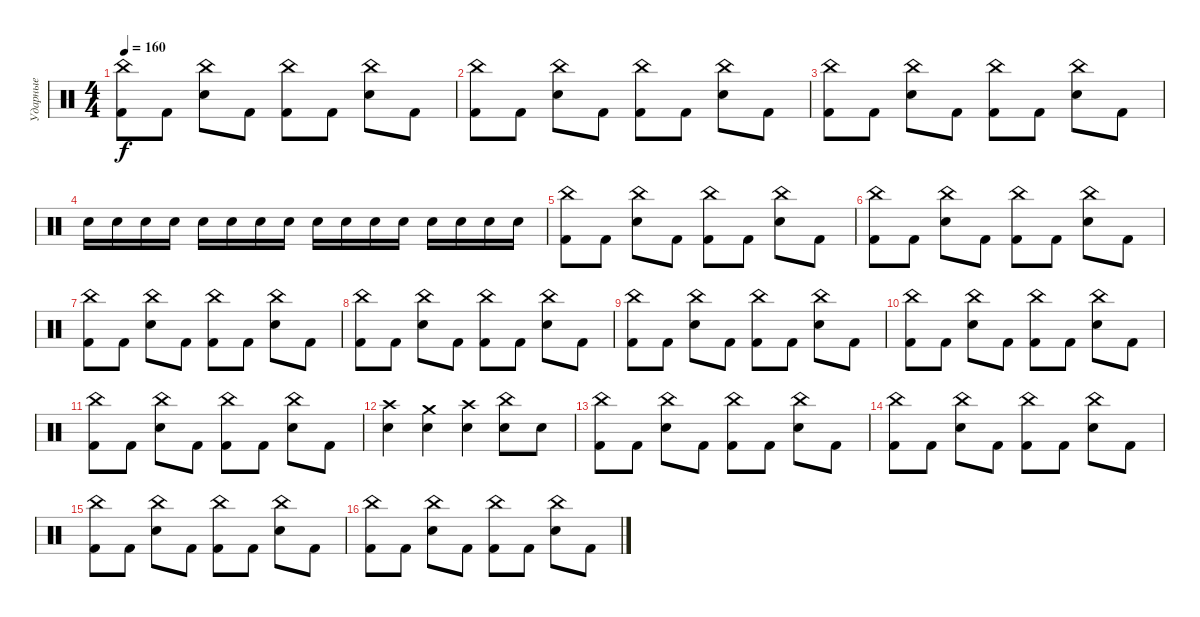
\track ("Ударные" "Ударные") {instrument percussion}
\staff {score}
\articulation defaults
\ts (4 4)
\tempo 160
\clef neutral
\ks c
("Kick (hit) 2" "China (hit)").8{dy f} "Kick (hit) 2".8 ("Electric Snare (hit)" "China (hit)").8 "Kick (hit) 2".8 ("Kick (hit) 2" "China (hit)").8 "Kick (hit) 2".8 ("Electric Snare (hit)" "China (hit)").8 "Kick (hit) 2".8 |
("Kick (hit) 2" "China (hit)").8 "Kick (hit) 2".8 ("Electric Snare (hit)" "China (hit)").8 "Kick (hit) 2".8 ("Kick (hit) 2" "China (hit)").8 "Kick (hit) 2".8 ("Electric Snare (hit)" "China (hit)").8 "Kick (hit) 2".8 |
("Kick (hit) 2" "China (hit)").8 "Kick (hit) 2".8 ("Electric Snare (hit)" "China (hit)").8 "Kick (hit) 2".8 ("Kick (hit) 2" "China (hit)").8 "Kick (hit) 2".8 ("Electric Snare (hit)" "China (hit)").8 "Kick (hit) 2".8 |
"Electric Snare (hit)".16 "Electric Snare (hit)".16 "Electric Snare (hit)".16 "Electric Snare (hit)".16 "Electric Snare (hit)".16 "Electric Snare (hit)".16 "Electric Snare (hit)".16 "Electric Snare (hit)".16 "Electric Snare (hit)".16 "Electric Snare (hit)".16 "Electric Snare (hit)".16 "Electric Snare (hit)".16 "Electric Snare (hit)".16 "Electric Snare (hit)".16 "Electric Snare (hit)".16 "Electric Snare (hit)".16 |
("Kick (hit) 2" "China (hit)").8 "Kick (hit) 2".8 ("Electric Snare (hit)" "China (hit)").8 "Kick (hit) 2".8 ("Kick (hit) 2" "China (hit)").8 "Kick (hit) 2".8 ("Electric Snare (hit)" "China (hit)").8 "Kick (hit) 2".8 |
("Kick (hit) 2" "China (hit)").8 "Kick (hit) 2".8 ("Electric Snare (hit)" "China (hit)").8 "Kick (hit) 2".8 ("Kick (hit) 2" "China (hit)").8 "Kick (hit) 2".8 ("Electric Snare (hit)" "China (hit)").8 "Kick (hit) 2".8 |
("Kick (hit) 2" "China (hit)").8 "Kick (hit) 2".8 ("Electric Snare (hit)" "China (hit)").8 "Kick (hit) 2".8 ("Kick (hit) 2" "China (hit)").8 "Kick (hit) 2".8 ("Electric Snare (hit)" "China (hit)").8 "Kick (hit) 2".8 |
("Kick (hit) 2" "China (hit)").8 "Kick (hit) 2".8 ("Electric Snare (hit)" "China (hit)").8 "Kick (hit) 2".8 ("Kick (hit) 2" "China (hit)").8 "Kick (hit) 2".8 ("Electric Snare (hit)" "China (hit)").8 "Kick (hit) 2".8 |
("Kick (hit) 2" "China (hit)").8 "Kick (hit) 2".8 ("Electric Snare (hit)" "China (hit)").8 "Kick (hit) 2".8 ("Kick (hit) 2" "China (hit)").8 "Kick (hit) 2".8 ("Electric Snare (hit)" "China (hit)").8 "Kick (hit) 2".8 |
("Kick (hit) 2" "China (hit)").8 "Kick (hit) 2".8 ("Electric Snare (hit)" "China (hit)").8 "Kick (hit) 2".8 ("Kick (hit) 2" "China (hit)").8 "Kick (hit) 2".8 ("Electric Snare (hit)" "China (hit)").8 "Kick (hit) 2".8 |
("Kick (hit) 2" "China (hit)").8 "Kick (hit) 2".8 ("Electric Snare (hit)" "China (hit)").8 "Kick (hit) 2".8 ("Kick (hit) 2" "China (hit)").8 "Kick (hit) 2".8 ("Electric Snare (hit)" "China (hit)").8 "Kick (hit) 2".8 |
("Electric Snare (hit)" "Crash high (hit)").4 ("Electric Snare (hit)" "Crash medium (hit)").4 ("Electric Snare (hit)" "Crash high (hit)").4 ("Electric Snare (hit)" "China (hit)").8 "Electric Snare (hit)".8 |
("Kick (hit) 2" "China (hit)").8 "Kick (hit) 2".8 ("Electric Snare (hit)" "China (hit)").8 "Kick (hit) 2".8 ("Kick (hit) 2" "China (hit)").8 "Kick (hit) 2".8 ("Electric Snare (hit)" "China (hit)").8 "Kick (hit) 2".8 |
("Kick (hit) 2" "China (hit)").8 "Kick (hit) 2".8 ("Electric Snare (hit)" "China (hit)").8 "Kick (hit) 2".8 ("Kick (hit) 2" "China (hit)").8 "Kick (hit) 2".8 ("Electric Snare (hit)" "China (hit)").8 "Kick (hit) 2".8 |
("Kick (hit) 2" "China (hit)").8 "Kick (hit) 2".8 ("Electric Snare (hit)" "China (hit)").8 "Kick (hit) 2".8 ("Kick (hit) 2" "China (hit)").8 "Kick (hit) 2".8 ("Electric Snare (hit)" "China (hit)").8 "Kick (hit) 2".8 |
("Kick (hit) 2" "China (hit)").8 "Kick (hit) 2".8 ("Electric Snare (hit)" "China (hit)").8 "Kick (hit) 2".8 ("Kick (hit) 2" "China (hit)").8 "Kick (hit) 2".8 ("Electric Snare (hit)" "China (hit)").8 "Kick (hit) 2".8
